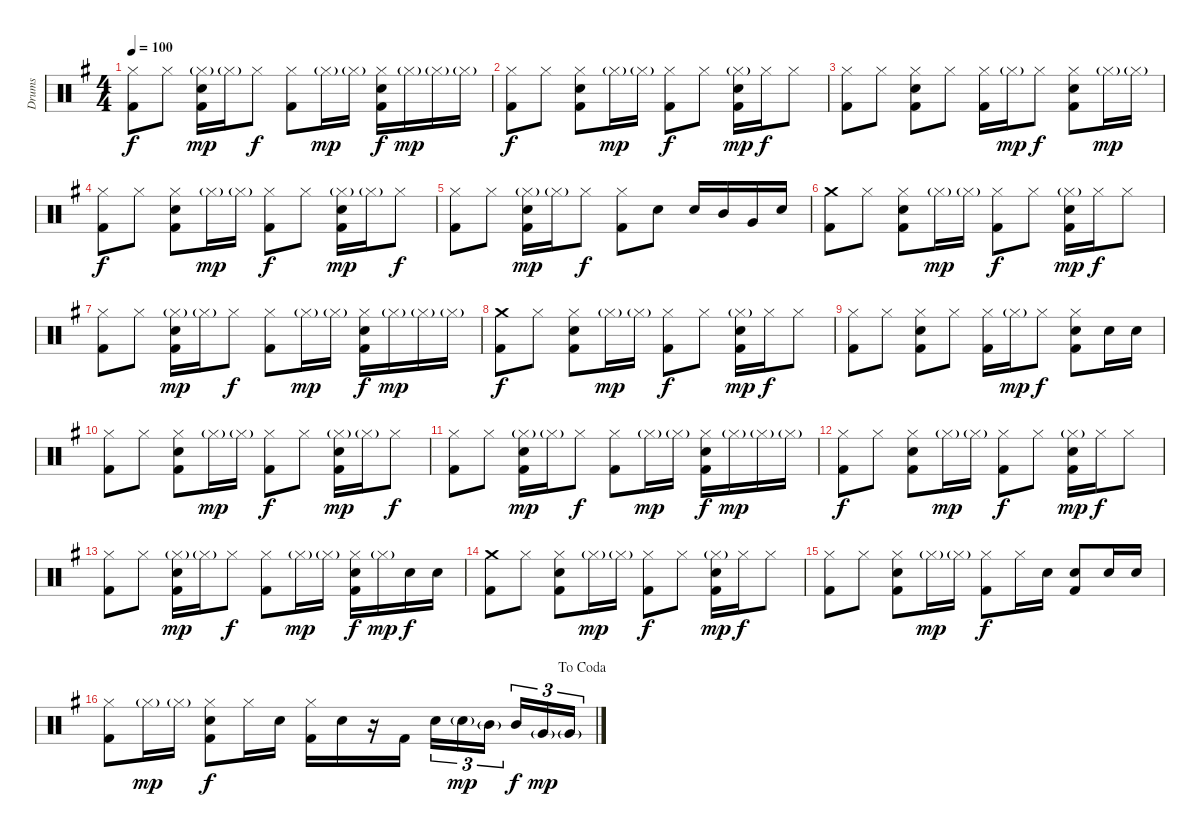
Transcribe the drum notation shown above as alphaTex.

\track ("Drums" "Drums") {instrument percussion}
\staff {score}
\articulation defaults
\ts (4 4)
\tempo 100
\clef neutral
\ks eminor
("Hi-Hat (closed)" "Kick (hit) 2").8{dy f} "Hi-Hat (closed)".8 ("Hi-Hat (closed)"{g} "Snare (hit) 2" "Kick (hit) 2").16{dy mp} "Hi-Hat (closed)"{g}.16 "Hi-Hat (closed)".8{dy f} ("Hi-Hat (closed)" "Kick (hit) 2").8 "Hi-Hat (closed)"{g}.16{dy mp} "Hi-Hat (closed)"{g}.16 ("Hi-Hat (closed)" "Snare (hit) 2" "Kick (hit) 2").16{dy f} "Hi-Hat (closed)"{g}.16{dy mp} "Hi-Hat (closed)"{g}.16 "Hi-Hat (closed)"{g}.16 |
("Hi-Hat (closed)" "Kick (hit) 2").8{dy f} "Hi-Hat (closed)".8 ("Hi-Hat (closed)" "Snare (hit) 2" "Kick (hit) 2").8 "Hi-Hat (closed)"{g}.16{dy mp} "Hi-Hat (closed)"{g}.16 ("Hi-Hat (closed)" "Kick (hit) 2").8{dy f} "Hi-Hat (closed)".8 ("Hi-Hat (closed)"{g} "Snare (hit) 2" "Kick (hit) 2").16{dy mp} "Hi-Hat (closed)".16{dy f} "Hi-Hat (closed)".8 |
("Hi-Hat (closed)" "Kick (hit) 2").8 "Hi-Hat (closed)".8 ("Hi-Hat (closed)" "Snare (hit) 2" "Kick (hit) 2").8 "Hi-Hat (closed)".8 ("Hi-Hat (closed)" "Kick (hit) 2").16 "Hi-Hat (closed)"{g}.16{dy mp} "Hi-Hat (closed)".8{dy f} ("Hi-Hat (closed)" "Snare (hit) 2" "Kick (hit) 2").8 "Hi-Hat (closed)"{g}.16{dy mp} "Hi-Hat (closed)"{g}.16 |
("Hi-Hat (closed)" "Kick (hit) 2").8{dy f} "Hi-Hat (closed)".8 ("Hi-Hat (closed)" "Snare (hit) 2" "Kick (hit) 2").8 "Hi-Hat (closed)"{g}.16{dy mp} "Hi-Hat (closed)"{g}.16 ("Hi-Hat (closed)" "Kick (hit) 2").8{dy f} "Hi-Hat (closed)".8 ("Hi-Hat (closed)"{g} "Snare (hit) 2" "Kick (hit) 2").16{dy mp} "Hi-Hat (closed)"{g}.16 "Hi-Hat (closed)".8{dy f} |
("Hi-Hat (closed)" "Kick (hit) 2").8 "Hi-Hat (closed)".8 ("Hi-Hat (closed)"{g} "Snare (hit) 2" "Kick (hit) 2").16{dy mp} "Hi-Hat (closed)"{g}.16 "Hi-Hat (closed)".8{dy f} ("Hi-Hat (closed)" "Kick (hit) 2").8 "Snare (hit) 2".8 "Snare (hit) 2".16 "Mid Tom (hit)".16 "Very Low Tom (hit)".16 "Snare (hit) 2".16 |
("Crash medium (hit)" "Kick (hit) 2").8 "Hi-Hat (closed)".8 ("Hi-Hat (closed)" "Snare (hit) 2" "Kick (hit) 2").8 "Hi-Hat (closed)"{g}.16{dy mp} "Hi-Hat (closed)"{g}.16 ("Hi-Hat (closed)" "Kick (hit) 2").8{dy f} "Hi-Hat (closed)".8 ("Hi-Hat (closed)"{g} "Snare (hit) 2" "Kick (hit) 2").16{dy mp} "Hi-Hat (closed)".16{dy f} "Hi-Hat (closed)".8 |
("Hi-Hat (closed)" "Kick (hit) 2").8 "Hi-Hat (closed)".8 ("Hi-Hat (closed)"{g} "Snare (hit) 2" "Kick (hit) 2").16{dy mp} "Hi-Hat (closed)"{g}.16 "Hi-Hat (closed)".8{dy f} ("Hi-Hat (closed)" "Kick (hit) 2").8 "Hi-Hat (closed)"{g}.16{dy mp} "Hi-Hat (closed)"{g}.16 ("Hi-Hat (closed)" "Snare (hit) 2" "Kick (hit) 2").16{dy f} "Hi-Hat (closed)"{g}.16{dy mp} "Hi-Hat (closed)"{g}.16 "Hi-Hat (closed)"{g}.16 |
("Crash medium (hit)" "Kick (hit) 2").8{dy f} "Hi-Hat (closed)".8 ("Hi-Hat (closed)" "Snare (hit) 2" "Kick (hit) 2").8 "Hi-Hat (closed)"{g}.16{dy mp} "Hi-Hat (closed)"{g}.16 ("Hi-Hat (closed)" "Kick (hit) 2").8{dy f} "Hi-Hat (closed)".8 ("Hi-Hat (closed)"{g} "Snare (hit) 2" "Kick (hit) 2").16{dy mp} "Hi-Hat (closed)".16{dy f} "Hi-Hat (closed)".8 |
("Hi-Hat (closed)" "Kick (hit) 2").8 "Hi-Hat (closed)".8 ("Hi-Hat (closed)" "Snare (hit) 2" "Kick (hit) 2").8 "Hi-Hat (closed)".8 ("Hi-Hat (closed)" "Kick (hit) 2").16 "Hi-Hat (closed)"{g}.16{dy mp} "Hi-Hat (closed)".8{dy f} ("Hi-Hat (closed)" "Snare (hit) 2" "Kick (hit) 2").8 "Snare (hit) 2".16 "Snare (hit) 2".16 |
("Hi-Hat (closed)" "Kick (hit) 2").8 "Hi-Hat (closed)".8 ("Hi-Hat (closed)" "Snare (hit) 2" "Kick (hit) 2").8 "Hi-Hat (closed)"{g}.16{dy mp} "Hi-Hat (closed)"{g}.16 ("Hi-Hat (closed)" "Kick (hit) 2").8{dy f} "Hi-Hat (closed)".8 ("Hi-Hat (closed)"{g} "Snare (hit) 2" "Kick (hit) 2").16{dy mp} "Hi-Hat (closed)"{g}.16 "Hi-Hat (closed)".8{dy f} |
("Hi-Hat (closed)" "Kick (hit) 2").8 "Hi-Hat (closed)".8 ("Hi-Hat (closed)"{g} "Snare (hit) 2" "Kick (hit) 2").16{dy mp} "Hi-Hat (closed)"{g}.16 "Hi-Hat (closed)".8{dy f} ("Hi-Hat (closed)" "Kick (hit) 2").8 "Hi-Hat (closed)"{g}.16{dy mp} "Hi-Hat (closed)"{g}.16 ("Hi-Hat (closed)" "Snare (hit) 2" "Kick (hit) 2").16{dy f} "Hi-Hat (closed)"{g}.16{dy mp} "Hi-Hat (closed)"{g}.16 "Hi-Hat (closed)"{g}.16 |
("Hi-Hat (closed)" "Kick (hit) 2").8{dy f} "Hi-Hat (closed)".8 ("Hi-Hat (closed)" "Snare (hit) 2" "Kick (hit) 2").8 "Hi-Hat (closed)"{g}.16{dy mp} "Hi-Hat (closed)"{g}.16 ("Hi-Hat (closed)" "Kick (hit) 2").8{dy f} "Hi-Hat (closed)".8 ("Hi-Hat (closed)"{g} "Snare (hit) 2" "Kick (hit) 2").16{dy mp} "Hi-Hat (closed)".16{dy f} "Hi-Hat (closed)".8 |
("Hi-Hat (closed)" "Kick (hit) 2").8 "Hi-Hat (closed)".8 ("Hi-Hat (closed)"{g} "Snare (hit) 2" "Kick (hit) 2").16{dy mp} "Hi-Hat (closed)"{g}.16 "Hi-Hat (closed)".8{dy f} ("Hi-Hat (closed)" "Kick (hit) 2").8 "Hi-Hat (closed)"{g}.16{dy mp} "Hi-Hat (closed)"{g}.16 ("Hi-Hat (closed)" "Snare (hit) 2" "Kick (hit) 2").16{dy f} "Hi-Hat (closed)"{g}.16{dy mp} "Snare (hit) 2".16{dy f} "Snare (hit) 2".16 |
("Crash medium (hit)" "Kick (hit) 2").8 "Hi-Hat (closed)".8 ("Hi-Hat (closed)" "Snare (hit) 2" "Kick (hit) 2").8 "Hi-Hat (closed)"{g}.16{dy mp} "Hi-Hat (closed)"{g}.16 ("Hi-Hat (closed)" "Kick (hit) 2").8{dy f} "Hi-Hat (closed)".8 ("Hi-Hat (closed)"{g} "Snare (hit) 2" "Kick (hit) 2").16{dy mp} "Hi-Hat (closed)".16{dy f} "Hi-Hat (closed)".8 |
("Hi-Hat (closed)" "Kick (hit) 2").8 "Hi-Hat (closed)".8 ("Hi-Hat (closed)" "Snare (hit) 2" "Kick (hit) 2").8 "Hi-Hat (closed)"{g}.16{dy mp} "Hi-Hat (closed)"{g}.16 ("Hi-Hat (closed)" "Kick (hit) 2").8{dy f} "Hi-Hat (closed)".16 "Snare (hit) 2".16 ("Snare (hit) 2" "Kick (hit) 2").8 "Snare (hit) 2".16 "Snare (hit) 2".16 |
\jump dacoda
("Hi-Hat (closed)" "Kick (hit) 2").8 "Hi-Hat (closed)"{g}.16{dy mp} "Hi-Hat (closed)"{g}.16 ("Hi-Hat (closed)" "Snare (hit) 2" "Kick (hit) 2").8{dy f} "Hi-Hat (closed)".16 "Snare (hit) 2".16 ("Hi-Hat (closed)" "Kick (hit) 2").16 "Snare (hit) 2".16 r.16 "Kick (hit) 2".16 "Snare (hit) 2".16{tu (3 2)} "Snare (hit) 2"{g}.16{tu (3 2) dy mp} "Mid Tom (hit)"{g}.16{tu (3 2) beam splitsecondary} "Mid Tom (hit)".16{tu (3 2) dy f} "Very Low Tom (hit)"{g}.16{tu (3 2) dy mp} "Very Low Tom (hit)"{g}.16{tu (3 2)}
